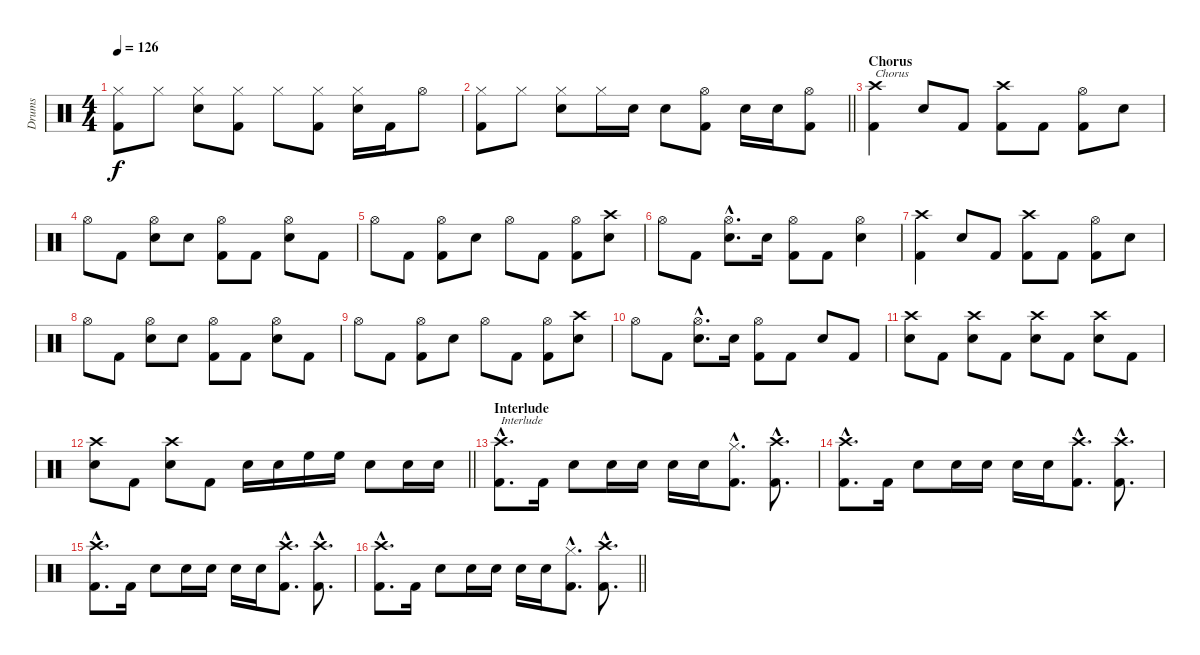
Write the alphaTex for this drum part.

\track ("Drums" "Drums") {instrument percussion}
\staff {score}
\articulation defaults
\ts (4 4)
\tempo 126
\clef neutral
\ks c
("Hi-Hat (closed)" "Kick (hit) 2").8{dy f} "Hi-Hat (closed)".8 ("Hi-Hat (closed)" "Electric Snare (hit)").8 ("Hi-Hat (closed)" "Kick (hit) 2").8 "Hi-Hat (closed)".8 ("Hi-Hat (closed)" "Kick (hit) 2").8 ("Hi-Hat (closed)" "Electric Snare (hit)").16 "Kick (hit) 2".16 "Hi-Hat (open)".8 |
\barLineRight lightlight
("Hi-Hat (closed)" "Kick (hit) 2").8 "Hi-Hat (closed)".8 ("Hi-Hat (closed)" "Electric Snare (hit)").8 "Hi-Hat (closed)".16 "Electric Snare (hit)".16 "Electric Snare (hit)".8 ("Hi-Hat (open)" "Kick (hit) 2").8 "Electric Snare (hit)".16 "Electric Snare (hit)".16 ("Hi-Hat (open)" "Kick (hit) 2").8 |
\section ("" "Chorus")
("Crash high (hit)" "Kick (hit) 2").4{txt "Chorus"} "Electric Snare (hit)".8 "Kick (hit) 2".8 ("Crash high (hit)" "Kick (hit) 2").8 "Kick (hit) 2".8 ("Hi-Hat (open)" "Kick (hit) 2").8 "Electric Snare (hit)".8 |
"Hi-Hat (open)".8 "Kick (hit) 2".8 ("Hi-Hat (open)" "Electric Snare (hit)").8 "Electric Snare (hit)".8 ("Hi-Hat (open)" "Kick (hit) 2").8 "Kick (hit) 2".8 ("Hi-Hat (open)" "Electric Snare (hit)").8 "Kick (hit) 2".8 |
"Hi-Hat (open)".8 "Kick (hit) 2".8 ("Hi-Hat (open)" "Kick (hit) 2").8 "Electric Snare (hit)".8 "Hi-Hat (open)".8 "Kick (hit) 2".8 ("Hi-Hat (open)" "Kick (hit) 2").8 ("Crash high (hit)" "Electric Snare (hit)").8 |
"Hi-Hat (open)".8 "Kick (hit) 2".8 ("Hi-Hat (open)"{hac} "Electric Snare (hit)"{hac}).8{d} "Electric Snare (hit)".16 ("Hi-Hat (open)" "Kick (hit) 2").8 "Kick (hit) 2".8 ("Hi-Hat (open)" "Electric Snare (hit)").4 |
("Crash high (hit)" "Kick (hit) 2").4 "Electric Snare (hit)".8 "Kick (hit) 2".8 ("Crash high (hit)" "Kick (hit) 2").8 "Kick (hit) 2".8 ("Hi-Hat (open)" "Kick (hit) 2").8 "Electric Snare (hit)".8 |
"Hi-Hat (open)".8 "Kick (hit) 2".8 ("Hi-Hat (open)" "Electric Snare (hit)").8 "Electric Snare (hit)".8 ("Hi-Hat (open)" "Kick (hit) 2").8 "Kick (hit) 2".8 ("Hi-Hat (open)" "Electric Snare (hit)").8 "Kick (hit) 2".8 |
"Hi-Hat (open)".8 "Kick (hit) 2".8 ("Hi-Hat (open)" "Kick (hit) 2").8 "Electric Snare (hit)".8 "Hi-Hat (open)".8 "Kick (hit) 2".8 ("Hi-Hat (open)" "Kick (hit) 2").8 ("Crash high (hit)" "Electric Snare (hit)").8 |
"Hi-Hat (open)".8 "Kick (hit) 2".8 ("Hi-Hat (open)"{hac} "Electric Snare (hit)"{hac}).8{d} "Electric Snare (hit)".16 ("Hi-Hat (open)" "Kick (hit) 2").8 "Kick (hit) 2".8 "Electric Snare (hit)".8 "Kick (hit) 2".8 |
("Crash high (hit)" "Electric Snare (hit)").8 "Kick (hit) 2".8 ("Crash high (hit)" "Electric Snare (hit)").8 "Kick (hit) 2".8 ("Crash high (hit)" "Electric Snare (hit)").8 "Kick (hit) 2".8 ("Crash high (hit)" "Electric Snare (hit)").8 "Kick (hit) 2".8 |
\barLineRight lightlight
("Crash high (hit)" "Electric Snare (hit)").8 "Kick (hit) 2".8 ("Crash high (hit)" "Electric Snare (hit)").8 "Kick (hit) 2".8 "Electric Snare (hit)".16 "Electric Snare (hit)".16 "High Floor Tom (hit)".16 "High Floor Tom (hit)".16 "Electric Snare (hit)".8 "Electric Snare (hit)".16 "Electric Snare (hit)".16 |
\section ("" "Interlude")
("Crash high (hit)"{hac} "Kick (hit) 2"{hac}).8{d txt "Interlude"} "Kick (hit) 2".16 "Electric Snare (hit)".8 "Electric Snare (hit)".16 "Electric Snare (hit)".16 "Electric Snare (hit)".16 "Electric Snare (hit)".16 ("Hi-Hat (closed)"{hac} "Kick (hit) 2"{hac}).8{d} ("Crash high (hit)"{hac} "Kick (hit) 2"{hac}).8{d} |
("Crash high (hit)"{hac} "Kick (hit) 2"{hac}).8{d} "Kick (hit) 2".16 "Electric Snare (hit)".8 "Electric Snare (hit)".16 "Electric Snare (hit)".16 "Electric Snare (hit)".16 "Electric Snare (hit)".16 ("Crash high (hit)"{hac} "Kick (hit) 2"{hac}).8{d} ("Crash high (hit)"{hac} "Kick (hit) 2"{hac}).8{d} |
("Crash high (hit)"{hac} "Kick (hit) 2"{hac}).8{d} "Kick (hit) 2".16 "Electric Snare (hit)".8 "Electric Snare (hit)".16 "Electric Snare (hit)".16 "Electric Snare (hit)".16 "Electric Snare (hit)".16 ("Crash high (hit)"{hac} "Kick (hit) 2"{hac}).8{d} ("Crash high (hit)"{hac} "Kick (hit) 2"{hac}).8{d} |
\barLineRight lightlight
("Crash high (hit)"{hac} "Kick (hit) 2"{hac}).8{d} "Kick (hit) 2".16 "Electric Snare (hit)".8 "Electric Snare (hit)".16 "Electric Snare (hit)".16 "Electric Snare (hit)".16 "Electric Snare (hit)".16 ("Hi-Hat (closed)"{hac} "Kick (hit) 2"{hac}).8{d} ("Crash high (hit)"{hac} "Kick (hit) 2"{hac}).8{d}
